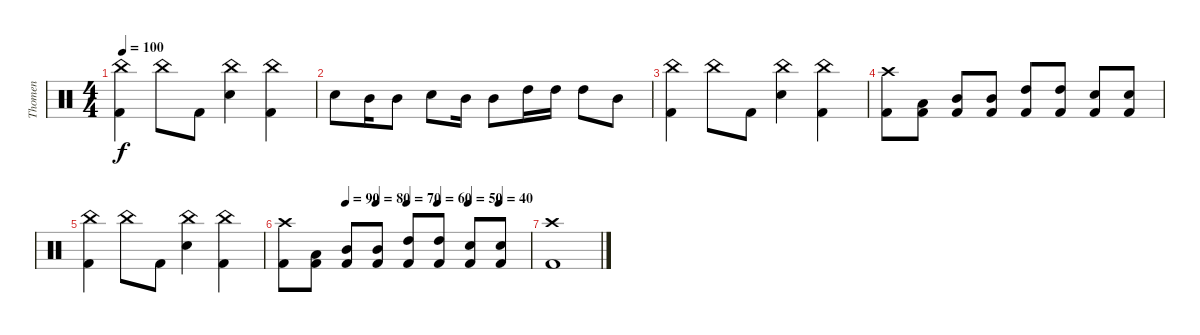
\track ("Thomen" "Thomen") {instrument percussion}
\staff {score}
\articulation defaults
\ts (4 4)
\tempo 100
\clef neutral
\ks c
("China (hit)" "Kick (hit) 2").4{dy f} "China (hit)".8 "Kick (hit) 2".8 ("China (hit)" "Snare (hit) 2").4 ("China (hit)" "Kick (hit) 2").4 |
"Snare (hit) 2".8 "Mid Tom (hit)".16 "Mid Tom (hit)".8 "Snare (hit) 2".8 "Mid Tom (hit)".16 "Mid Tom (hit)".8 "High Tom (hit)".16 "High Tom (hit)".16 "High Tom (hit)".8 "Mid Tom (hit)".8 |
("China (hit)" "Kick (hit) 2").4 "China (hit)".8 "Kick (hit) 2".8 ("China (hit)" "Snare (hit) 2").4 ("China (hit)" "Kick (hit) 2").4 |
("Crash high (hit)" "Kick (hit) 2").8 ("Low Tom (hit)" "Kick (hit) 2").8 ("Mid Tom (hit)" "Kick (hit) 2").8 ("Mid Tom (hit)" "Kick (hit) 2").8 ("High Tom (hit)" "Kick (hit) 2").8 ("High Tom (hit)" "Kick (hit) 2").8 ("Snare (hit) 2" "Kick (hit) 2").8 ("Snare (hit) 2" "Kick (hit) 2").8 |
("China (hit)" "Kick (hit) 2").4 "China (hit)".8 "Kick (hit) 2".8 ("China (hit)" "Snare (hit) 2").4 ("China (hit)" "Kick (hit) 2").4 |
\tempo (90 0.25)
\tempo (80 0.375)
\tempo (70 0.5)
\tempo (60 0.625)
\tempo (50 0.75)
\tempo (40 0.875)
("Crash high (hit)" "Kick (hit) 2").8 ("Low Tom (hit)" "Kick (hit) 2").8 ("Mid Tom (hit)" "Kick (hit) 2").8 ("Mid Tom (hit)" "Kick (hit) 2").8 ("High Tom (hit)" "Kick (hit) 2").8 ("High Tom (hit)" "Kick (hit) 2").8 ("Snare (hit) 2" "Kick (hit) 2").8 ("Snare (hit) 2" "Kick (hit) 2").8 |
("Crash high (hit)" "Kick (hit) 2").1
